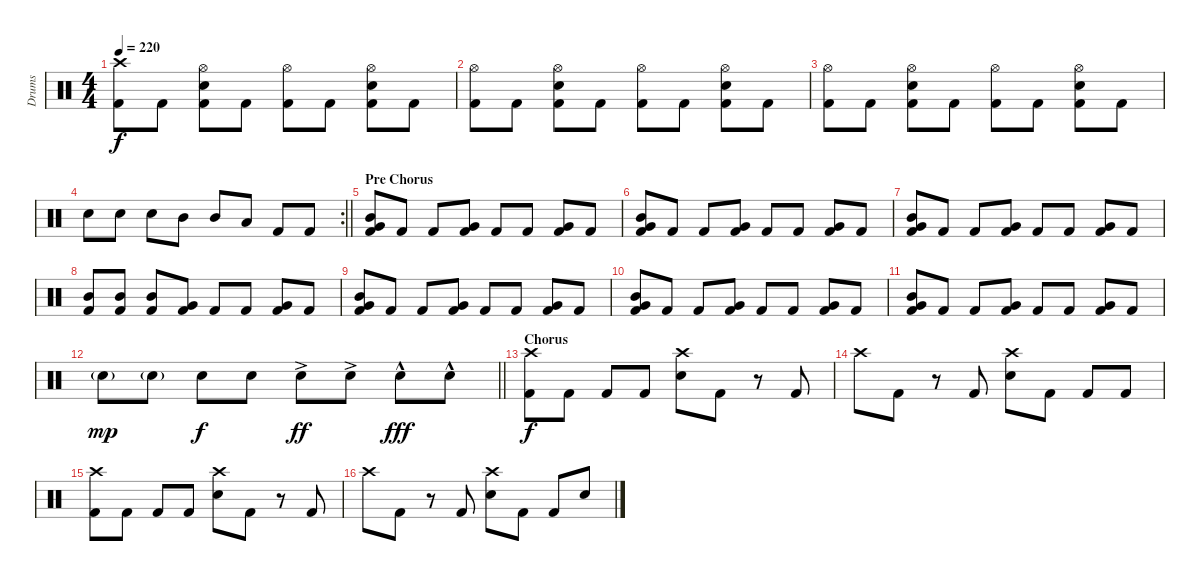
\track ("Drums" "Drums") {instrument percussion}
\staff {score}
\articulation defaults
\ts (4 4)
\tempo 220
\clef neutral
\ks c
("Kick (hit) 2" "Crash high (hit)").8{dy f} "Kick (hit) 2".8 ("Kick (hit) 2" "Electric Snare (hit)" "Hi-Hat (open)").8 "Kick (hit) 2".8 ("Kick (hit) 2" "Hi-Hat (open)").8 "Kick (hit) 2".8 ("Kick (hit) 2" "Electric Snare (hit)" "Hi-Hat (open)").8 "Kick (hit) 2".8 |
("Kick (hit) 2" "Hi-Hat (open)").8 "Kick (hit) 2".8 ("Kick (hit) 2" "Electric Snare (hit)" "Hi-Hat (open)").8 "Kick (hit) 2".8 ("Kick (hit) 2" "Hi-Hat (open)").8 "Kick (hit) 2".8 ("Kick (hit) 2" "Electric Snare (hit)" "Hi-Hat (open)").8 "Kick (hit) 2".8 |
("Kick (hit) 2" "Hi-Hat (open)").8 "Kick (hit) 2".8 ("Kick (hit) 2" "Electric Snare (hit)" "Hi-Hat (open)").8 "Kick (hit) 2".8 ("Kick (hit) 2" "Hi-Hat (open)").8 "Kick (hit) 2".8 ("Kick (hit) 2" "Electric Snare (hit)" "Hi-Hat (open)").8 "Kick (hit) 2".8 |
\rc 2
\barLineRight lightlight "Electric Snare (hit)".8 "Electric Snare (hit)".8 "Electric Snare (hit)".8 "Mid Tom (hit)".8 "Mid Tom (hit)".8 "Low Tom (hit)".8 "Kick (hit) 2".8 "Kick (hit) 2".8
|
\section ("" "Pre Chorus")
("Kick (hit) 2" "Mid Tom (hit)" "Very Low Tom (hit)").8 "Kick (hit) 2".8 "Kick (hit) 2".8 ("Kick (hit) 2" "Very Low Tom (hit)").8 "Kick (hit) 2".8 "Kick (hit) 2".8 ("Kick (hit) 2" "Very Low Tom (hit)").8 "Kick (hit) 2".8 |
("Kick (hit) 2" "Mid Tom (hit)" "Very Low Tom (hit)").8 "Kick (hit) 2".8 "Kick (hit) 2".8 ("Kick (hit) 2" "Very Low Tom (hit)").8 "Kick (hit) 2".8 "Kick (hit) 2".8 ("Kick (hit) 2" "Very Low Tom (hit)").8 "Kick (hit) 2".8 |
("Kick (hit) 2" "Mid Tom (hit)" "Very Low Tom (hit)").8 "Kick (hit) 2".8 "Kick (hit) 2".8 ("Kick (hit) 2" "Very Low Tom (hit)").8 "Kick (hit) 2".8 "Kick (hit) 2".8 ("Kick (hit) 2" "Very Low Tom (hit)").8 "Kick (hit) 2".8 |
("Kick (hit) 2" "Mid Tom (hit)").8 ("Kick (hit) 2" "Mid Tom (hit)").8 ("Kick (hit) 2" "Mid Tom (hit)").8 ("Kick (hit) 2" "Very Low Tom (hit)").8 "Kick (hit) 2".8 "Kick (hit) 2".8 ("Kick (hit) 2" "Very Low Tom (hit)").8 "Kick (hit) 2".8 |
("Kick (hit) 2" "Mid Tom (hit)" "Very Low Tom (hit)").8 "Kick (hit) 2".8 "Kick (hit) 2".8 ("Kick (hit) 2" "Very Low Tom (hit)").8 "Kick (hit) 2".8 "Kick (hit) 2".8 ("Kick (hit) 2" "Very Low Tom (hit)").8 "Kick (hit) 2".8 |
("Kick (hit) 2" "Mid Tom (hit)" "Very Low Tom (hit)").8 "Kick (hit) 2".8 "Kick (hit) 2".8 ("Kick (hit) 2" "Very Low Tom (hit)").8 "Kick (hit) 2".8 "Kick (hit) 2".8 ("Kick (hit) 2" "Very Low Tom (hit)").8 "Kick (hit) 2".8 |
("Kick (hit) 2" "Mid Tom (hit)" "Very Low Tom (hit)").8 "Kick (hit) 2".8 "Kick (hit) 2".8 ("Kick (hit) 2" "Very Low Tom (hit)").8 "Kick (hit) 2".8 "Kick (hit) 2".8 ("Kick (hit) 2" "Very Low Tom (hit)").8 "Kick (hit) 2".8 |
\barLineRight lightlight "Electric Snare (hit)"{g}.8{dy mp} "Electric Snare (hit)"{g}.8 "Electric Snare (hit)".8{dy f} "Electric Snare (hit)".8 "Electric Snare (hit)"{ac}.8{dy ff} "Electric Snare (hit)"{ac}.8 "Electric Snare (hit)"{hac}.8{dy fff} "Electric Snare (hit)"{hac}.8
|
\section ("" "Chorus")
("Kick (hit) 2" "Crash high (hit)").8{dy f} "Kick (hit) 2".8 "Kick (hit) 2".8 "Kick (hit) 2".8 ("Electric Snare (hit)" "Crash high (hit)").8 "Kick (hit) 2".8 r.8 "Kick (hit) 2".8 |
"Crash high (hit)".8 "Kick (hit) 2".8 r.8 "Kick (hit) 2".8 ("Electric Snare (hit)" "Crash high (hit)").8 "Kick (hit) 2".8 "Kick (hit) 2".8 "Kick (hit) 2".8 |
("Kick (hit) 2" "Crash high (hit)").8 "Kick (hit) 2".8 "Kick (hit) 2".8 "Kick (hit) 2".8 ("Electric Snare (hit)" "Crash high (hit)").8 "Kick (hit) 2".8 r.8 "Kick (hit) 2".8 |
"Crash high (hit)".8 "Kick (hit) 2".8 r.8 "Kick (hit) 2".8 ("Electric Snare (hit)" "Crash high (hit)").8 "Kick (hit) 2".8 "Kick (hit) 2".8 "Electric Snare (hit)".8
